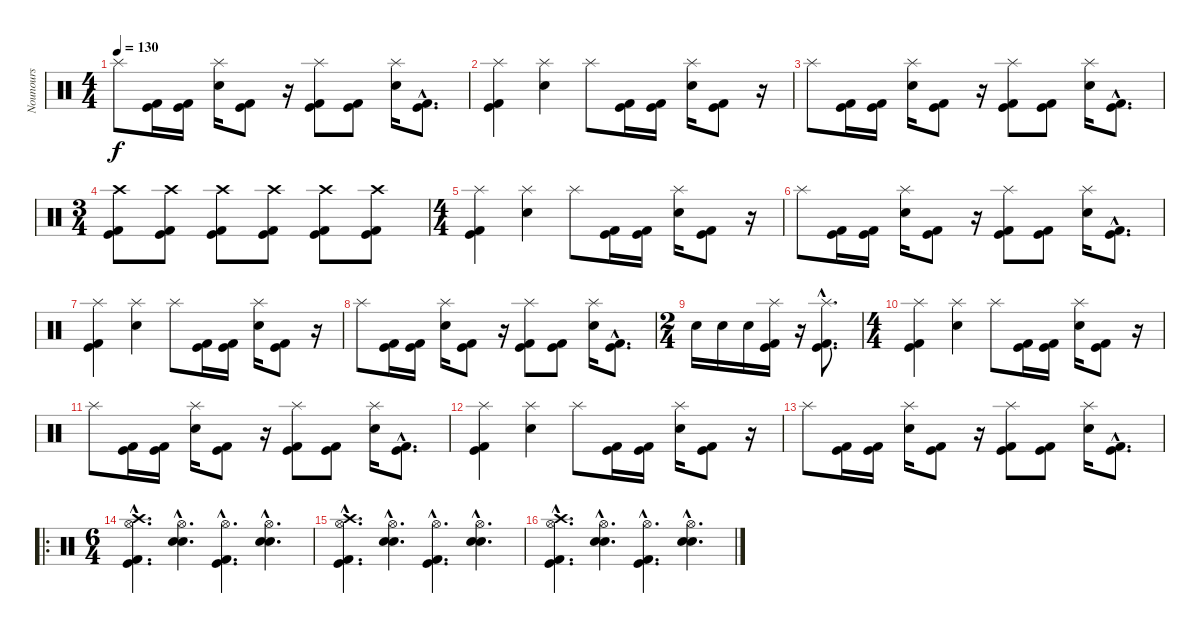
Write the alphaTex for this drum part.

\track ("Nounours" "Nounours") {instrument percussion}
\staff {score}
\articulation defaults
\ts (4 4)
\tempo 130
\clef neutral
\ks c "Splash (hit)".8{dy f}
("Kick (hit)" "Kick (hit) 2").16 ("Kick (hit) 2" "Kick (hit)").16 ("Splash (hit)" "Snare (hit) 2").16 ("Kick (hit) 2" "Kick (hit)").8 r.16 ("Splash (hit)" "Kick (hit) 2" "Kick (hit)").8 ("Kick (hit) 2" "Kick (hit)").8 ("Splash (hit)" "Snare (hit) 2").16 ("Kick (hit) 2"{hac} "Kick (hit)"{hac}).8{d} |
("Splash (hit)" "Kick (hit) 2" "Kick (hit)").4 ("Splash (hit)" "Snare (hit) 2").4 "Splash (hit)".8 ("Kick (hit) 2" "Kick (hit)").16 ("Kick (hit)" "Kick (hit) 2").16 ("Splash (hit)" "Snare (hit) 2").16 ("Kick (hit)" "Kick (hit) 2").8 r.16 |
"Splash (hit)".8 ("Kick (hit)" "Kick (hit) 2").16 ("Kick (hit) 2" "Kick (hit)").16 ("Splash (hit)" "Snare (hit) 2").16 ("Kick (hit) 2" "Kick (hit)").8 r.16 ("Splash (hit)" "Kick (hit) 2" "Kick (hit)").8 ("Kick (hit) 2" "Kick (hit)").8 ("Splash (hit)" "Snare (hit) 2").16 ("Kick (hit) 2"{hac} "Kick (hit)"{hac}).8{d} |
\ts (3 4)
("Crash high (hit)" "Kick (hit) 2" "Kick (hit)").8 ("Crash high (hit)" "Kick (hit)" "Kick (hit) 2").8 ("Crash high (hit)" "Kick (hit)" "Kick (hit) 2").8 ("Crash high (hit)" "Kick (hit)" "Kick (hit) 2").8 ("Crash high (hit)" "Kick (hit) 2" "Kick (hit)").8 ("Crash high (hit)" "Kick (hit) 2" "Kick (hit)").8 |
\ts (4 4)
("Splash (hit)" "Kick (hit) 2" "Kick (hit)").4 ("Splash (hit)" "Snare (hit) 2").4 "Splash (hit)".8 ("Kick (hit) 2" "Kick (hit)").16 ("Kick (hit)" "Kick (hit) 2").16 ("Splash (hit)" "Snare (hit) 2").16 ("Kick (hit)" "Kick (hit) 2").8 r.16 |
"Splash (hit)".8 ("Kick (hit)" "Kick (hit) 2").16 ("Kick (hit) 2" "Kick (hit)").16 ("Splash (hit)" "Snare (hit) 2").16 ("Kick (hit) 2" "Kick (hit)").8 r.16 ("Splash (hit)" "Kick (hit) 2" "Kick (hit)").8 ("Kick (hit) 2" "Kick (hit)").8 ("Splash (hit)" "Snare (hit) 2").16 ("Kick (hit) 2"{hac} "Kick (hit)"{hac}).8{d} |
("Splash (hit)" "Kick (hit) 2" "Kick (hit)").4 ("Splash (hit)" "Snare (hit) 2").4 "Splash (hit)".8 ("Kick (hit) 2" "Kick (hit)").16 ("Kick (hit)" "Kick (hit) 2").16 ("Splash (hit)" "Snare (hit) 2").16 ("Kick (hit)" "Kick (hit) 2").8 r.16 |
"Splash (hit)".8 ("Kick (hit)" "Kick (hit) 2").16 ("Kick (hit) 2" "Kick (hit)").16 ("Splash (hit)" "Snare (hit) 2").16 ("Kick (hit) 2" "Kick (hit)").8 r.16 ("Splash (hit)" "Kick (hit) 2" "Kick (hit)").8 ("Kick (hit) 2" "Kick (hit)").8 ("Splash (hit)" "Snare (hit) 2").16 ("Kick (hit) 2"{hac} "Kick (hit)"{hac}).8{d} |
\ts (2 4)
"Snare (hit) 2".16 "Snare (hit) 2".16 "Snare (hit) 2".16 ("Splash (hit)" "Kick (hit)" "Kick (hit) 2").16 r.16 ("Splash (hit)"{hac} "Kick (hit)"{hac} "Kick (hit) 2"{hac}).8{d} |
\ts (4 4)
("Splash (hit)" "Kick (hit) 2" "Kick (hit)").4 ("Splash (hit)" "Snare (hit) 2").4 "Splash (hit)".8 ("Kick (hit) 2" "Kick (hit)").16 ("Kick (hit)" "Kick (hit) 2").16 ("Splash (hit)" "Snare (hit) 2").16 ("Kick (hit)" "Kick (hit) 2").8 r.16 |
"Splash (hit)".8 ("Kick (hit)" "Kick (hit) 2").16 ("Kick (hit) 2" "Kick (hit)").16 ("Splash (hit)" "Snare (hit) 2").16 ("Kick (hit) 2" "Kick (hit)").8 r.16 ("Splash (hit)" "Kick (hit) 2" "Kick (hit)").8 ("Kick (hit) 2" "Kick (hit)").8 ("Splash (hit)" "Snare (hit) 2").16 ("Kick (hit) 2"{hac} "Kick (hit)"{hac}).8{d} |
("Splash (hit)" "Kick (hit) 2" "Kick (hit)").4 ("Splash (hit)" "Snare (hit) 2").4 "Splash (hit)".8 ("Kick (hit) 2" "Kick (hit)").16 ("Kick (hit)" "Kick (hit) 2").16 ("Splash (hit)" "Snare (hit) 2").16 ("Kick (hit)" "Kick (hit) 2").8 r.16 |
"Splash (hit)".8 ("Kick (hit)" "Kick (hit) 2").16 ("Kick (hit) 2" "Kick (hit)").16 ("Splash (hit)" "Snare (hit) 2").16 ("Kick (hit) 2" "Kick (hit)").8 r.16 ("Splash (hit)" "Kick (hit) 2" "Kick (hit)").8 ("Kick (hit) 2" "Kick (hit)").8 ("Splash (hit)" "Snare (hit) 2").16 ("Kick (hit) 2"{hac} "Kick (hit)"{hac}).8{d} |
\ro
\ts (6 4)
("Hi-Hat (open)"{hac} "Crash high (hit)"{hac} "Kick (hit) 2"{hac} "Kick (hit)"{hac}).4{d} ("Hi-Hat (open)"{hac} "Snare (hit) 2"{hac} "Electric Snare (hit)"{hac}).4{d} ("Hi-Hat (open)"{hac} "Kick (hit)"{hac} "Kick (hit) 2"{hac}).4{d} ("Hi-Hat (open)"{hac} "Snare (hit) 2"{hac} "Electric Snare (hit)"{hac}).4{d} |
("Hi-Hat (open)"{hac} "Crash high (hit)"{hac} "Kick (hit) 2"{hac} "Kick (hit)"{hac}).4{d} ("Hi-Hat (open)"{hac} "Snare (hit) 2"{hac} "Electric Snare (hit)"{hac}).4{d} ("Hi-Hat (open)"{hac} "Kick (hit)"{hac} "Kick (hit) 2"{hac}).4{d} ("Hi-Hat (open)"{hac} "Snare (hit) 2"{hac} "Electric Snare (hit)"{hac}).4{d} |
("Hi-Hat (open)"{hac} "Crash high (hit)"{hac} "Kick (hit) 2"{hac} "Kick (hit)"{hac}).4{d} ("Hi-Hat (open)"{hac} "Snare (hit) 2"{hac} "Electric Snare (hit)"{hac}).4{d} ("Hi-Hat (open)"{hac} "Kick (hit)"{hac} "Kick (hit) 2"{hac}).4{d} ("Hi-Hat (open)"{hac} "Snare (hit) 2"{hac} "Electric Snare (hit)"{hac}).4{d}
